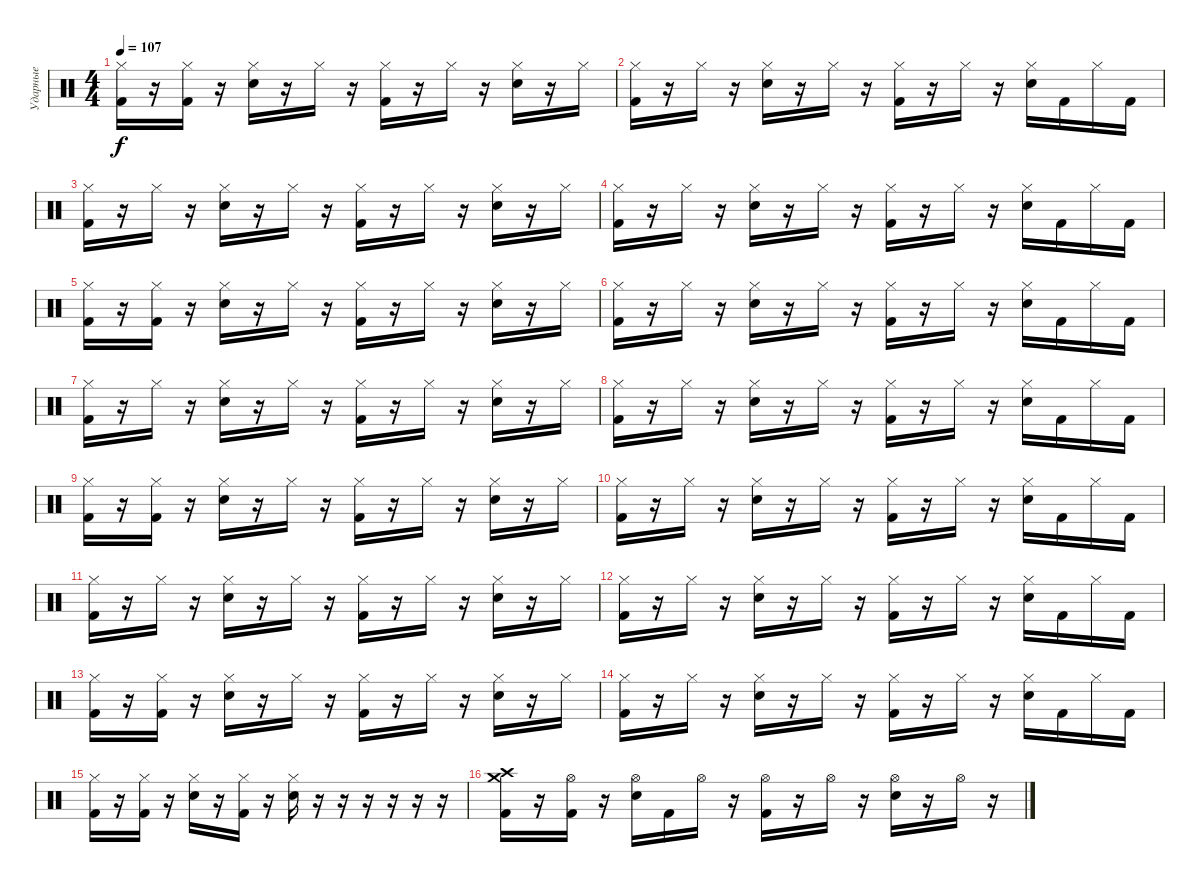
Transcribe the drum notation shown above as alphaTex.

\track ("Ударные" "Ударные") {instrument percussion}
\staff {score}
\articulation defaults
\ts (4 4)
\tempo 107
\clef neutral
\ks c
("Hi-Hat (closed)" "Kick (hit) 2").16{dy f} r.16 ("Hi-Hat (closed)" "Kick (hit) 2").16 r.16 ("Electric Snare (hit)" "Hi-Hat (closed)").16 r.16 "Hi-Hat (closed)".16 r.16 ("Hi-Hat (closed)" "Kick (hit) 2").16 r.16 "Hi-Hat (closed)".16 r.16 ("Electric Snare (hit)" "Hi-Hat (closed)").16 r.16 "Hi-Hat (closed)".16 |
("Hi-Hat (closed)" "Kick (hit) 2").16 r.16 "Hi-Hat (closed)".16 r.16 ("Electric Snare (hit)" "Hi-Hat (closed)").16 r.16 "Hi-Hat (closed)".16 r.16 ("Hi-Hat (closed)" "Kick (hit) 2").16 r.16 "Hi-Hat (closed)".16 r.16 ("Electric Snare (hit)" "Hi-Hat (closed)").16 "Kick (hit) 2".16 "Hi-Hat (closed)".16 "Kick (hit) 2".16 |
("Hi-Hat (closed)" "Kick (hit) 2").16 r.16 "Hi-Hat (closed)".16 r.16 ("Electric Snare (hit)" "Hi-Hat (closed)").16 r.16 "Hi-Hat (closed)".16 r.16 ("Hi-Hat (closed)" "Kick (hit) 2").16 r.16 "Hi-Hat (closed)".16 r.16 ("Electric Snare (hit)" "Hi-Hat (closed)").16 r.16 "Hi-Hat (closed)".16 |
("Hi-Hat (closed)" "Kick (hit) 2").16 r.16 "Hi-Hat (closed)".16 r.16 ("Electric Snare (hit)" "Hi-Hat (closed)").16 r.16 "Hi-Hat (closed)".16 r.16 ("Hi-Hat (closed)" "Kick (hit) 2").16 r.16 "Hi-Hat (closed)".16 r.16 ("Electric Snare (hit)" "Hi-Hat (closed)").16 "Kick (hit) 2".16 "Hi-Hat (closed)".16 "Kick (hit) 2".16 |
("Hi-Hat (closed)" "Kick (hit) 2").16 r.16 ("Hi-Hat (closed)" "Kick (hit) 2").16 r.16 ("Electric Snare (hit)" "Hi-Hat (closed)").16 r.16 "Hi-Hat (closed)".16 r.16 ("Hi-Hat (closed)" "Kick (hit) 2").16 r.16 "Hi-Hat (closed)".16 r.16 ("Electric Snare (hit)" "Hi-Hat (closed)").16 r.16 "Hi-Hat (closed)".16 |
("Hi-Hat (closed)" "Kick (hit) 2").16 r.16 "Hi-Hat (closed)".16 r.16 ("Electric Snare (hit)" "Hi-Hat (closed)").16 r.16 "Hi-Hat (closed)".16 r.16 ("Hi-Hat (closed)" "Kick (hit) 2").16 r.16 "Hi-Hat (closed)".16 r.16 ("Electric Snare (hit)" "Hi-Hat (closed)").16 "Kick (hit) 2".16 "Hi-Hat (closed)".16 "Kick (hit) 2".16 |
("Hi-Hat (closed)" "Kick (hit) 2").16 r.16 "Hi-Hat (closed)".16 r.16 ("Electric Snare (hit)" "Hi-Hat (closed)").16 r.16 "Hi-Hat (closed)".16 r.16 ("Hi-Hat (closed)" "Kick (hit) 2").16 r.16 "Hi-Hat (closed)".16 r.16 ("Electric Snare (hit)" "Hi-Hat (closed)").16 r.16 "Hi-Hat (closed)".16 |
("Hi-Hat (closed)" "Kick (hit) 2").16 r.16 "Hi-Hat (closed)".16 r.16 ("Electric Snare (hit)" "Hi-Hat (closed)").16 r.16 "Hi-Hat (closed)".16 r.16 ("Hi-Hat (closed)" "Kick (hit) 2").16 r.16 "Hi-Hat (closed)".16 r.16 ("Electric Snare (hit)" "Hi-Hat (closed)").16 "Kick (hit) 2".16 "Hi-Hat (closed)".16 "Kick (hit) 2".16 |
("Hi-Hat (closed)" "Kick (hit) 2").16 r.16 ("Hi-Hat (closed)" "Kick (hit) 2").16 r.16 ("Electric Snare (hit)" "Hi-Hat (closed)").16 r.16 "Hi-Hat (closed)".16 r.16 ("Hi-Hat (closed)" "Kick (hit) 2").16 r.16 "Hi-Hat (closed)".16 r.16 ("Electric Snare (hit)" "Hi-Hat (closed)").16 r.16 "Hi-Hat (closed)".16 |
("Hi-Hat (closed)" "Kick (hit) 2").16 r.16 "Hi-Hat (closed)".16 r.16 ("Electric Snare (hit)" "Hi-Hat (closed)").16 r.16 "Hi-Hat (closed)".16 r.16 ("Hi-Hat (closed)" "Kick (hit) 2").16 r.16 "Hi-Hat (closed)".16 r.16 ("Electric Snare (hit)" "Hi-Hat (closed)").16 "Kick (hit) 2".16 "Hi-Hat (closed)".16 "Kick (hit) 2".16 |
("Hi-Hat (closed)" "Kick (hit) 2").16 r.16 "Hi-Hat (closed)".16 r.16 ("Electric Snare (hit)" "Hi-Hat (closed)").16 r.16 "Hi-Hat (closed)".16 r.16 ("Hi-Hat (closed)" "Kick (hit) 2").16 r.16 "Hi-Hat (closed)".16 r.16 ("Electric Snare (hit)" "Hi-Hat (closed)").16 r.16 "Hi-Hat (closed)".16 |
("Hi-Hat (closed)" "Kick (hit) 2").16 r.16 "Hi-Hat (closed)".16 r.16 ("Electric Snare (hit)" "Hi-Hat (closed)").16 r.16 "Hi-Hat (closed)".16 r.16 ("Hi-Hat (closed)" "Kick (hit) 2").16 r.16 "Hi-Hat (closed)".16 r.16 ("Electric Snare (hit)" "Hi-Hat (closed)").16 "Kick (hit) 2".16 "Hi-Hat (closed)".16 "Kick (hit) 2".16 |
("Hi-Hat (closed)" "Kick (hit) 2").16 r.16 ("Hi-Hat (closed)" "Kick (hit) 2").16 r.16 ("Electric Snare (hit)" "Hi-Hat (closed)").16 r.16 "Hi-Hat (closed)".16 r.16 ("Hi-Hat (closed)" "Kick (hit) 2").16 r.16 "Hi-Hat (closed)".16 r.16 ("Electric Snare (hit)" "Hi-Hat (closed)").16 r.16 "Hi-Hat (closed)".16 |
("Hi-Hat (closed)" "Kick (hit) 2").16 r.16 "Hi-Hat (closed)".16 r.16 ("Electric Snare (hit)" "Hi-Hat (closed)").16 r.16 "Hi-Hat (closed)".16 r.16 ("Hi-Hat (closed)" "Kick (hit) 2").16 r.16 "Hi-Hat (closed)".16 r.16 ("Electric Snare (hit)" "Hi-Hat (closed)").16 "Kick (hit) 2".16 "Hi-Hat (closed)".16 "Kick (hit) 2".16 |
("Hi-Hat (closed)" "Kick (hit) 2").16 r.16 ("Hi-Hat (closed)" "Kick (hit) 2").16 r.16 ("Electric Snare (hit)" "Hi-Hat (closed)").16 r.16 ("Hi-Hat (closed)" "Kick (hit) 2").16 r.16 ("Hi-Hat (closed)" "Electric Snare (hit)").16 r.16 r.16 r.16 r.16 r.16 r.16 |
("Kick (hit) 2" "Crash high (hit)" "Crash medium (hit)").16 r.16 ("Kick (hit) 2" "Hi-Hat (open)").16 r.16 ("Electric Snare (hit)" "Hi-Hat (open)").16 "Kick (hit) 2".16 "Hi-Hat (open)".16 r.16 ("Kick (hit) 2" "Hi-Hat (open)").16 r.16 "Hi-Hat (open)".16 r.16 ("Electric Snare (hit)" "Hi-Hat (open)").16 r.16 "Hi-Hat (open)".16 r.16
